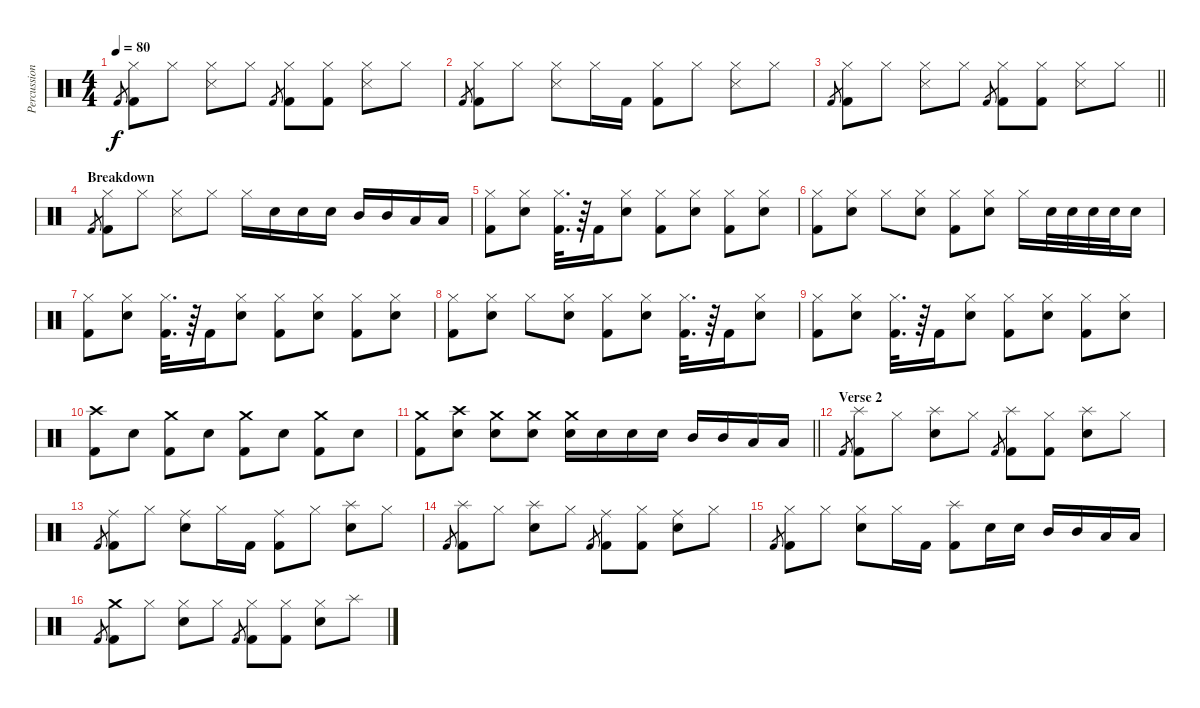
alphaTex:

\track ("Percussion" "Percussion") {instrument percussion}
\staff {score}
\articulation defaults
\ts (4 4)
\tempo 80
\clef neutral
\ks c "Kick (hit) 2".8{gr dy f}
("Hi-Hat (closed)" "Kick (hit) 2").8 "Hi-Hat (closed)".8 ("Hi-Hat (closed)" "Snare (side stick) 3").8 "Hi-Hat (closed)".8 "Kick (hit) 2".8{gr} ("Hi-Hat (closed)" "Kick (hit) 2").8 ("Hi-Hat (closed)" "Kick (hit) 2").8 ("Hi-Hat (closed)" "Snare (side stick) 3").8 "Hi-Hat (closed)".8 |
"Kick (hit) 2".8{gr} ("Hi-Hat (closed)" "Kick (hit) 2").8 "Hi-Hat (closed)".8 ("Hi-Hat (closed)" "Snare (side stick) 3").8 "Hi-Hat (closed)".16 "Kick (hit) 2".16 ("Hi-Hat (closed)" "Kick (hit) 2").8 "Hi-Hat (closed)".8 ("Hi-Hat (closed)" "Snare (side stick) 3").8 "Hi-Hat (closed)".8 |
\barLineRight lightlight "Kick (hit) 2".8{gr}
("Hi-Hat (closed)" "Kick (hit) 2").8 "Hi-Hat (closed)".8 ("Hi-Hat (closed)" "Snare (side stick) 3").8 "Hi-Hat (closed)".8 "Kick (hit) 2".8{gr} ("Hi-Hat (closed)" "Kick (hit) 2").8 ("Hi-Hat (closed)" "Kick (hit) 2").8 ("Hi-Hat (closed)" "Snare (side stick) 3").8 "Hi-Hat (closed)".8 |
\section ("" "Breakdown")
"Kick (hit) 2".8{gr} ("Hi-Hat (closed)" "Kick (hit) 2").8 "Hi-Hat (closed)".8 ("Hi-Hat (closed)" "Snare (side stick) 3").8 "Hi-Hat (closed)".8 "Hi-Hat (closed)".16 "Snare (hit) 2".16 "Snare (hit) 2".16 "Snare (hit) 2".16 "Mid Tom (hit)".16 "Mid Tom (hit)".16 "Low Floor Tom (hit)".16 "Low Floor Tom (hit)".16 |
("Hi-Hat (closed)" "Kick (hit) 2").8 ("Hi-Hat (closed)" "Snare (hit) 2").8 ("Hi-Hat (closed)" "Kick (hit) 2").32{d} r.64 "Kick (hit) 2".16 ("Hi-Hat (closed)" "Snare (hit) 2").8 ("Hi-Hat (closed)" "Kick (hit) 2").8 ("Hi-Hat (closed)" "Snare (hit) 2").8 ("Hi-Hat (closed)" "Kick (hit) 2").8 ("Hi-Hat (closed)" "Snare (hit) 2").8 |
("Hi-Hat (closed)" "Kick (hit) 2").8 ("Hi-Hat (closed)" "Snare (hit) 2").8 "Hi-Hat (closed)".8 ("Hi-Hat (closed)" "Snare (hit) 2").8 ("Hi-Hat (closed)" "Kick (hit) 2").8 ("Hi-Hat (closed)" "Snare (hit) 2").8 "Hi-Hat (closed)".16 "Snare (hit) 2".32 "Snare (hit) 2".32 "Snare (hit) 2".32 "Snare (hit) 2".32 "Snare (hit) 2".16 |
("Hi-Hat (closed)" "Kick (hit) 2").8 ("Hi-Hat (closed)" "Snare (hit) 2").8 ("Hi-Hat (closed)" "Kick (hit) 2").32{d} r.64 "Kick (hit) 2".16 ("Hi-Hat (closed)" "Snare (hit) 2").8 ("Hi-Hat (closed)" "Kick (hit) 2").8 ("Hi-Hat (closed)" "Snare (hit) 2").8 ("Hi-Hat (closed)" "Kick (hit) 2").8 ("Hi-Hat (closed)" "Snare (hit) 2").8 |
("Hi-Hat (closed)" "Kick (hit) 2").8 ("Hi-Hat (closed)" "Snare (hit) 2").8 "Hi-Hat (closed)".8 ("Hi-Hat (closed)" "Snare (hit) 2").8 ("Hi-Hat (closed)" "Kick (hit) 2").8 ("Hi-Hat (closed)" "Snare (hit) 2").8 ("Hi-Hat (closed)" "Kick (hit) 2").32{d} r.64 "Kick (hit) 2".16 ("Hi-Hat (closed)" "Snare (hit) 2").8 |
("Hi-Hat (closed)" "Kick (hit) 2").8 ("Hi-Hat (closed)" "Snare (hit) 2").8 ("Hi-Hat (closed)" "Kick (hit) 2").32{d} r.64 "Kick (hit) 2".16 ("Hi-Hat (closed)" "Snare (hit) 2").8 ("Hi-Hat (closed)" "Kick (hit) 2").8 ("Hi-Hat (closed)" "Snare (hit) 2").8 ("Hi-Hat (closed)" "Kick (hit) 2").8 ("Hi-Hat (closed)" "Snare (hit) 2").8 |
("Crash high (hit)" "Kick (hit) 2").8 "Snare (hit) 2".8 ("Crash medium (hit)" "Kick (hit) 2").8 "Snare (hit) 2".8 ("Crash medium (hit)" "Kick (hit) 2").8 "Snare (hit) 2".8 ("Crash medium (hit)" "Kick (hit) 2").8 "Snare (hit) 2".8 |
\barLineRight lightlight
("Crash medium (hit)" "Kick (hit) 2").8 ("Crash high (hit)" "Snare (hit) 2").8 ("Crash medium (hit)" "Snare (hit) 2").8 ("Crash medium (hit)" "Snare (hit) 2").8 ("Crash medium (hit)" "Snare (hit) 2").16 "Snare (hit) 2".16 "Snare (hit) 2".16 "Snare (hit) 2".16 "Mid Tom (hit)".16 "Mid Tom (hit)".16 "Low Floor Tom (hit)".16 "Low Floor Tom (hit)".16 |
\section ("" "Verse 2")
"Kick (hit) 2".8{gr} ("Splash (hit)" "Kick (hit) 2").8 "Hi-Hat (closed)".8 ("Splash (hit)" "Snare (hit) 2").8 "Hi-Hat (closed)".8 "Kick (hit) 2".8{gr} ("Splash (hit)" "Kick (hit) 2").8 ("Hi-Hat (closed)" "Kick (hit) 2").8 ("Splash (hit)" "Snare (hit) 2").8 "Hi-Hat (closed)".8 |
"Kick (hit) 2".8{gr} ("Ride (middle)" "Kick (hit) 2").8 "Hi-Hat (closed)".8 ("Ride (middle)" "Snare (hit) 2").8 "Hi-Hat (closed)".16 "Kick (hit) 2".16 ("Ride (middle)" "Kick (hit) 2").8 "Hi-Hat (closed)".8 ("Splash (hit)" "Snare (hit) 2").8 "Hi-Hat (closed)".8 |
"Kick (hit) 2".8{gr} ("Splash (hit)" "Kick (hit) 2").8 "Hi-Hat (closed)".8 ("Splash (hit)" "Snare (hit) 2").8 "Hi-Hat (closed)".8 "Kick (hit) 2".8{gr} ("Ride (middle)" "Kick (hit) 2").8 ("Hi-Hat (closed)" "Kick (hit) 2").8 ("Ride (middle)" "Snare (hit) 2").8 "Hi-Hat (closed)".8 |
"Kick (hit) 2".8{gr} ("Hi-Hat (closed)" "Kick (hit) 2").8 "Hi-Hat (closed)".8 ("Hi-Hat (closed)" "Snare (hit) 2").8 "Hi-Hat (closed)".16 "Kick (hit) 2".16 ("Splash (hit)" "Kick (hit) 2").8 "Snare (hit) 2".16 "Snare (hit) 2".16 "Mid Tom (hit)".16 "Mid Tom (hit)".16 "Low Floor Tom (hit)".16 "Low Floor Tom (hit)".16 |
"Kick (hit) 2".8{gr} ("Crash medium (hit)" "Kick (hit) 2").8 "Hi-Hat (closed)".8 ("Hi-Hat (closed)" "Snare (hit) 2").8 "Hi-Hat (closed)".8 "Kick (hit) 2".8{gr} ("Hi-Hat (closed)" "Kick (hit) 2").8 ("Hi-Hat (closed)" "Kick (hit) 2").8 ("Hi-Hat (closed)" "Snare (hit) 2").8 "Splash (hit)".8
